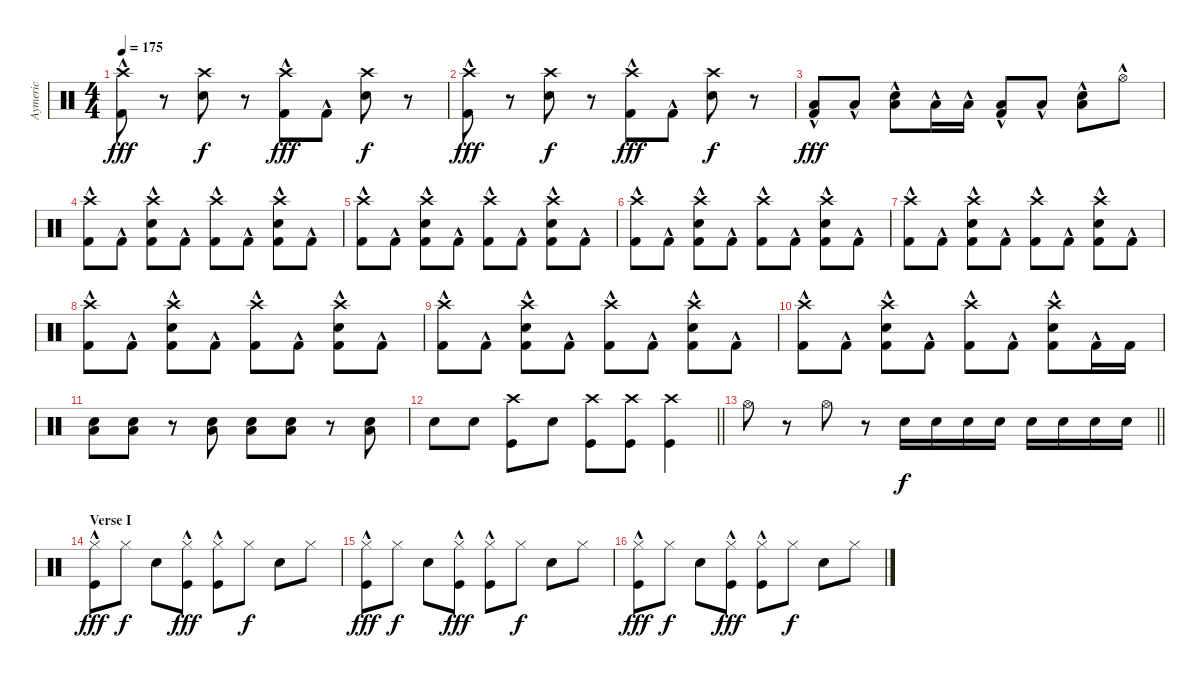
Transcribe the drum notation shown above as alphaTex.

\track ("Aymeric" "Aymeric") {instrument percussion}
\staff {score}
\articulation defaults
\ts (4 4)
\tempo 175
\clef neutral
\ks c
("Crash high (hit)" "Kick (hit) 2"{hac}).8{dy fff} r.8 ("Crash high (hit)" "Snare (hit) 2").8{dy f} r.8 ("Crash high (hit)" "Kick (hit) 2"{hac}).8{dy fff} "Kick (hit) 2"{hac}.8 ("Crash high (hit)" "Snare (hit) 2").8{dy f} r.8 |
("Crash high (hit)" "Kick (hit) 2"{hac}).8{dy fff} r.8 ("Crash high (hit)" "Snare (hit) 2").8{dy f} r.8 ("Crash high (hit)" "Kick (hit) 2"{hac}).8{dy fff} "Kick (hit) 2"{hac}.8 ("Crash high (hit)" "Snare (hit) 2").8{dy f} r.8 |
("Low Floor Tom (hit)"{hac} "Kick (hit) 2"{hac}).8{dy fff} "Low Floor Tom (hit)"{hac}.8 ("Low Floor Tom (hit)"{hac} "Snare (hit) 2").8 "Low Floor Tom (hit)"{hac}.16 "Low Floor Tom (hit)"{hac}.16 ("Low Floor Tom (hit)"{hac} "Kick (hit) 2").8 "Low Floor Tom (hit)"{hac}.8 ("Low Floor Tom (hit)"{hac} "Snare (hit) 2").8 "Hi-Hat (open)"{hac}.8 |
("Crash high (hit)" "Kick (hit) 2"{hac}).8 "Kick (hit) 2"{hac}.8 ("Crash high (hit)" "Snare (hit) 2" "Kick (hit) 2"{hac}).8 "Kick (hit) 2"{hac}.8 ("Crash high (hit)" "Kick (hit) 2"{hac}).8 "Kick (hit) 2"{hac}.8 ("Crash high (hit)" "Snare (hit) 2" "Kick (hit) 2"{hac}).8 "Kick (hit) 2"{hac}.8 |
("Crash high (hit)" "Kick (hit) 2"{hac}).8 "Kick (hit) 2"{hac}.8 ("Crash high (hit)" "Snare (hit) 2" "Kick (hit) 2"{hac}).8 "Kick (hit) 2"{hac}.8 ("Crash high (hit)" "Kick (hit) 2"{hac}).8 "Kick (hit) 2"{hac}.8 ("Crash high (hit)" "Snare (hit) 2" "Kick (hit) 2"{hac}).8 "Kick (hit) 2"{hac}.8 |
("Crash high (hit)" "Kick (hit) 2"{hac}).8 "Kick (hit) 2"{hac}.8 ("Crash high (hit)" "Snare (hit) 2" "Kick (hit) 2"{hac}).8 "Kick (hit) 2"{hac}.8 ("Crash high (hit)" "Kick (hit) 2"{hac}).8 "Kick (hit) 2"{hac}.8 ("Crash high (hit)" "Snare (hit) 2" "Kick (hit) 2"{hac}).8 "Kick (hit) 2"{hac}.8 |
("Crash high (hit)" "Kick (hit) 2"{hac}).8 "Kick (hit) 2"{hac}.8 ("Crash high (hit)" "Snare (hit) 2" "Kick (hit) 2"{hac}).8 "Kick (hit) 2"{hac}.8 ("Crash high (hit)" "Kick (hit) 2"{hac}).8 "Kick (hit) 2"{hac}.8 ("Crash high (hit)" "Snare (hit) 2" "Kick (hit) 2"{hac}).8 "Kick (hit) 2"{hac}.8 |
("Crash high (hit)" "Kick (hit) 2"{hac}).8 "Kick (hit) 2"{hac}.8 ("Crash high (hit)" "Snare (hit) 2" "Kick (hit) 2"{hac}).8 "Kick (hit) 2"{hac}.8 ("Crash high (hit)" "Kick (hit) 2"{hac}).8 "Kick (hit) 2"{hac}.8 ("Crash high (hit)" "Snare (hit) 2" "Kick (hit) 2"{hac}).8 "Kick (hit) 2"{hac}.8 |
("Crash high (hit)" "Kick (hit) 2"{hac}).8 "Kick (hit) 2"{hac}.8 ("Crash high (hit)" "Snare (hit) 2" "Kick (hit) 2"{hac}).8 "Kick (hit) 2"{hac}.8 ("Crash high (hit)" "Kick (hit) 2"{hac}).8 "Kick (hit) 2"{hac}.8 ("Crash high (hit)" "Snare (hit) 2" "Kick (hit) 2"{hac}).8 "Kick (hit) 2"{hac}.8 |
("Crash high (hit)" "Kick (hit) 2"{hac}).8 "Kick (hit) 2"{hac}.8 ("Crash high (hit)" "Snare (hit) 2" "Kick (hit) 2"{hac}).8 "Kick (hit) 2"{hac}.8 ("Crash high (hit)" "Kick (hit) 2"{hac}).8 "Kick (hit) 2"{hac}.8 ("Crash high (hit)" "Snare (hit) 2" "Kick (hit) 2"{hac}).8 "Kick (hit) 2"{hac}.16 "Kick (hit) 2".16 |
("Low Floor Tom (hit)" "Snare (hit) 2").8 ("Low Floor Tom (hit)" "Snare (hit) 2").8 r.8 ("Low Floor Tom (hit)" "Snare (hit) 2").8 ("Low Floor Tom (hit)" "Snare (hit) 2").8 ("Low Floor Tom (hit)" "Snare (hit) 2").8 r.8 ("Low Floor Tom (hit)" "Snare (hit) 2").8 |
\barLineRight lightlight "Snare (hit) 2".8 "Snare (hit) 2".8
("Crash high (hit)" "Kick (hit)").8 "Snare (hit) 2".8 ("Crash high (hit)" "Kick (hit)").8 ("Crash high (hit)" "Kick (hit)").8 ("Crash high (hit)" "Kick (hit)").4 |
\barLineRight lightlight "Hi-Hat (open)".8
r.8 "Hi-Hat (open)".8 r.8 "Snare (hit) 2".16{dy f} "Snare (hit) 2".16 "Snare (hit) 2".16 "Snare (hit) 2".16 "Snare (hit) 2".16 "Snare (hit) 2".16 "Snare (hit) 2".16 "Snare (hit) 2".16 |
\section ("" "Verse I")
("Hi-Hat (closed)" "Kick (hit)"{hac}).8{dy fff} "Hi-Hat (closed)".8{dy f} "Snare (hit) 2".8 ("Hi-Hat (closed)" "Kick (hit)"{hac}).8{dy fff} ("Hi-Hat (closed)" "Kick (hit)"{hac}).8 "Hi-Hat (closed)".8{dy f} "Snare (hit) 2".8 "Hi-Hat (closed)".8 |
("Hi-Hat (closed)" "Kick (hit)"{hac}).8{dy fff} "Hi-Hat (closed)".8{dy f} "Snare (hit) 2".8 ("Hi-Hat (closed)" "Kick (hit)"{hac}).8{dy fff} ("Hi-Hat (closed)" "Kick (hit)"{hac}).8 "Hi-Hat (closed)".8{dy f} "Snare (hit) 2".8 "Hi-Hat (closed)".8 |
("Hi-Hat (closed)" "Kick (hit)"{hac}).8{dy fff} "Hi-Hat (closed)".8{dy f} "Snare (hit) 2".8 ("Hi-Hat (closed)" "Kick (hit)"{hac}).8{dy fff} ("Hi-Hat (closed)" "Kick (hit)"{hac}).8 "Hi-Hat (closed)".8{dy f} "Snare (hit) 2".8 "Hi-Hat (closed)".8
